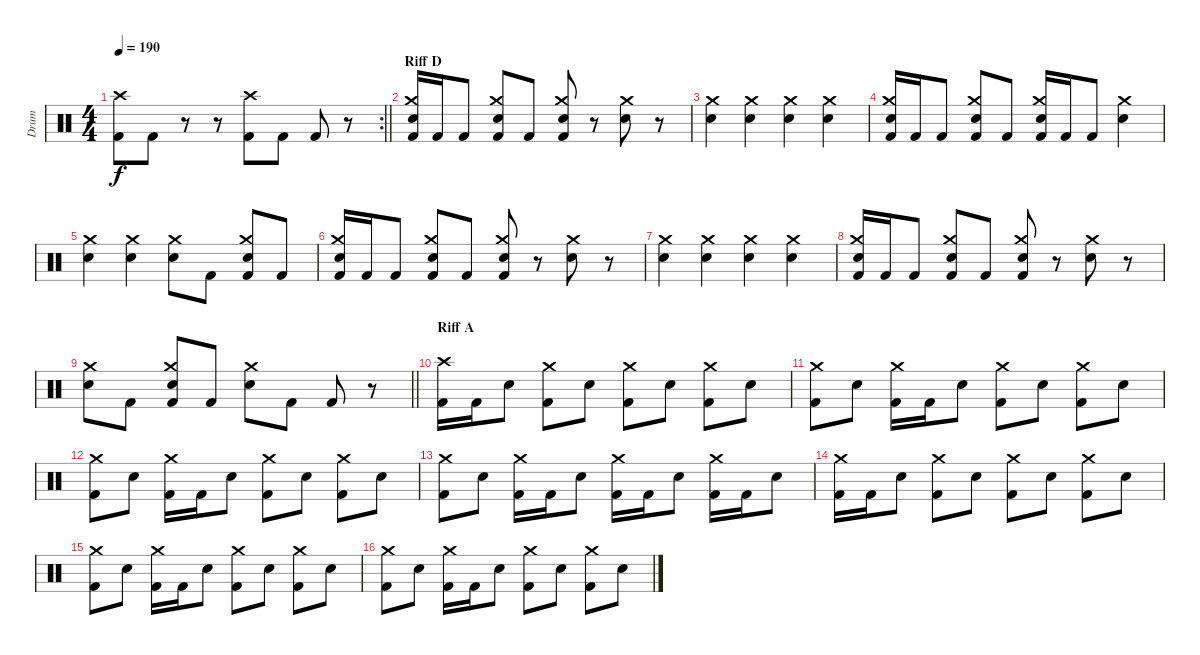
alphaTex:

\track ("Drum" "Drum") {instrument percussion}
\staff {score}
\articulation defaults
\rc 2
\ts (4 4)
\tempo 190
\clef neutral
\barLineRight lightlight
\ks c
("Crash high (hit)" "Kick (hit) 2").8{dy f} "Kick (hit) 2".8 r.8 r.8 ("Crash high (hit)" "Kick (hit) 2").8 "Kick (hit) 2".8 "Kick (hit) 2".8 r.8 |
\section ("" "Riff D")
("Crash medium (hit)" "Electric Snare (hit)" "Kick (hit) 2").16 "Kick (hit) 2".16 "Kick (hit) 2".8 ("Crash medium (hit)" "Electric Snare (hit)" "Kick (hit) 2").8 "Kick (hit) 2".8 ("Crash medium (hit)" "Electric Snare (hit)" "Kick (hit) 2").8 r.8 ("Crash medium (hit)" "Electric Snare (hit)").8 r.8 |
("Crash medium (hit)" "Electric Snare (hit)").4 ("Crash medium (hit)" "Electric Snare (hit)").4 ("Crash medium (hit)" "Electric Snare (hit)").4 ("Crash medium (hit)" "Electric Snare (hit)").4 |
("Crash medium (hit)" "Electric Snare (hit)" "Kick (hit) 2").16 "Kick (hit) 2".16 "Kick (hit) 2".8 ("Crash medium (hit)" "Electric Snare (hit)" "Kick (hit) 2").8 "Kick (hit) 2".8 ("Crash medium (hit)" "Electric Snare (hit)" "Kick (hit) 2").16 "Kick (hit) 2".16 "Kick (hit) 2".8 ("Crash medium (hit)" "Electric Snare (hit)").4 |
("Crash medium (hit)" "Electric Snare (hit)").4 ("Crash medium (hit)" "Electric Snare (hit)").4 ("Crash medium (hit)" "Electric Snare (hit)").8 "Kick (hit) 2".8 ("Crash medium (hit)" "Electric Snare (hit)" "Kick (hit) 2").8 "Kick (hit) 2".8 |
("Crash medium (hit)" "Electric Snare (hit)" "Kick (hit) 2").16 "Kick (hit) 2".16 "Kick (hit) 2".8 ("Crash medium (hit)" "Electric Snare (hit)" "Kick (hit) 2").8 "Kick (hit) 2".8 ("Crash medium (hit)" "Electric Snare (hit)" "Kick (hit) 2").8 r.8 ("Crash medium (hit)" "Electric Snare (hit)").8 r.8 |
("Crash medium (hit)" "Electric Snare (hit)").4 ("Crash medium (hit)" "Electric Snare (hit)").4 ("Crash medium (hit)" "Electric Snare (hit)").4 ("Crash medium (hit)" "Electric Snare (hit)").4 |
("Crash medium (hit)" "Electric Snare (hit)" "Kick (hit) 2").16 "Kick (hit) 2".16 "Kick (hit) 2".8 ("Crash medium (hit)" "Electric Snare (hit)" "Kick (hit) 2").8 "Kick (hit) 2".8 ("Crash medium (hit)" "Electric Snare (hit)" "Kick (hit) 2").8 r.8 ("Crash medium (hit)" "Electric Snare (hit)").8 r.8 |
\barLineRight lightlight
("Crash medium (hit)" "Electric Snare (hit)").8 "Kick (hit) 2".8 ("Crash medium (hit)" "Electric Snare (hit)" "Kick (hit) 2").8 "Kick (hit) 2".8 ("Crash medium (hit)" "Electric Snare (hit)").8 "Kick (hit) 2".8 "Kick (hit) 2".8 r.8 |
\section ("" "Riff A")
("Crash high (hit)" "Kick (hit) 2").16 "Kick (hit) 2".16 "Electric Snare (hit)".8 ("Crash medium (hit)" "Kick (hit) 2").8 "Electric Snare (hit)".8 ("Crash medium (hit)" "Kick (hit) 2").8 "Electric Snare (hit)".8 ("Crash medium (hit)" "Kick (hit) 2").8 "Electric Snare (hit)".8 |
("Crash medium (hit)" "Kick (hit) 2").8 "Electric Snare (hit)".8 ("Crash medium (hit)" "Kick (hit) 2").16 "Kick (hit) 2".16 "Electric Snare (hit)".8 ("Crash medium (hit)" "Kick (hit) 2").8 "Electric Snare (hit)".8 ("Crash medium (hit)" "Kick (hit) 2").8 "Electric Snare (hit)".8 |
("Crash medium (hit)" "Kick (hit) 2").8 "Electric Snare (hit)".8 ("Crash medium (hit)" "Kick (hit) 2").16 "Kick (hit) 2".16 "Electric Snare (hit)".8 ("Crash medium (hit)" "Kick (hit) 2").8 "Electric Snare (hit)".8 ("Crash medium (hit)" "Kick (hit) 2").8 "Electric Snare (hit)".8 |
("Crash medium (hit)" "Kick (hit) 2").8 "Electric Snare (hit)".8 ("Crash medium (hit)" "Kick (hit) 2").16 "Kick (hit) 2".16 "Electric Snare (hit)".8 ("Crash medium (hit)" "Kick (hit) 2").16 "Kick (hit) 2".16 "Electric Snare (hit)".8 ("Crash medium (hit)" "Kick (hit) 2").16 "Kick (hit) 2".16 "Electric Snare (hit)".8 |
("Crash medium (hit)" "Kick (hit) 2").16 "Kick (hit) 2".16 "Electric Snare (hit)".8 ("Crash medium (hit)" "Kick (hit) 2").8 "Electric Snare (hit)".8 ("Crash medium (hit)" "Kick (hit) 2").8 "Electric Snare (hit)".8 ("Crash medium (hit)" "Kick (hit) 2").8 "Electric Snare (hit)".8 |
("Crash medium (hit)" "Kick (hit) 2").8 "Electric Snare (hit)".8 ("Crash medium (hit)" "Kick (hit) 2").16 "Kick (hit) 2".16 "Electric Snare (hit)".8 ("Crash medium (hit)" "Kick (hit) 2").8 "Electric Snare (hit)".8 ("Crash medium (hit)" "Kick (hit) 2").8 "Electric Snare (hit)".8 |
("Crash medium (hit)" "Kick (hit) 2").8 "Electric Snare (hit)".8 ("Crash medium (hit)" "Kick (hit) 2").16 "Kick (hit) 2".16 "Electric Snare (hit)".8 ("Crash medium (hit)" "Kick (hit) 2").8 "Electric Snare (hit)".8 ("Crash medium (hit)" "Kick (hit) 2").8 "Electric Snare (hit)".8
